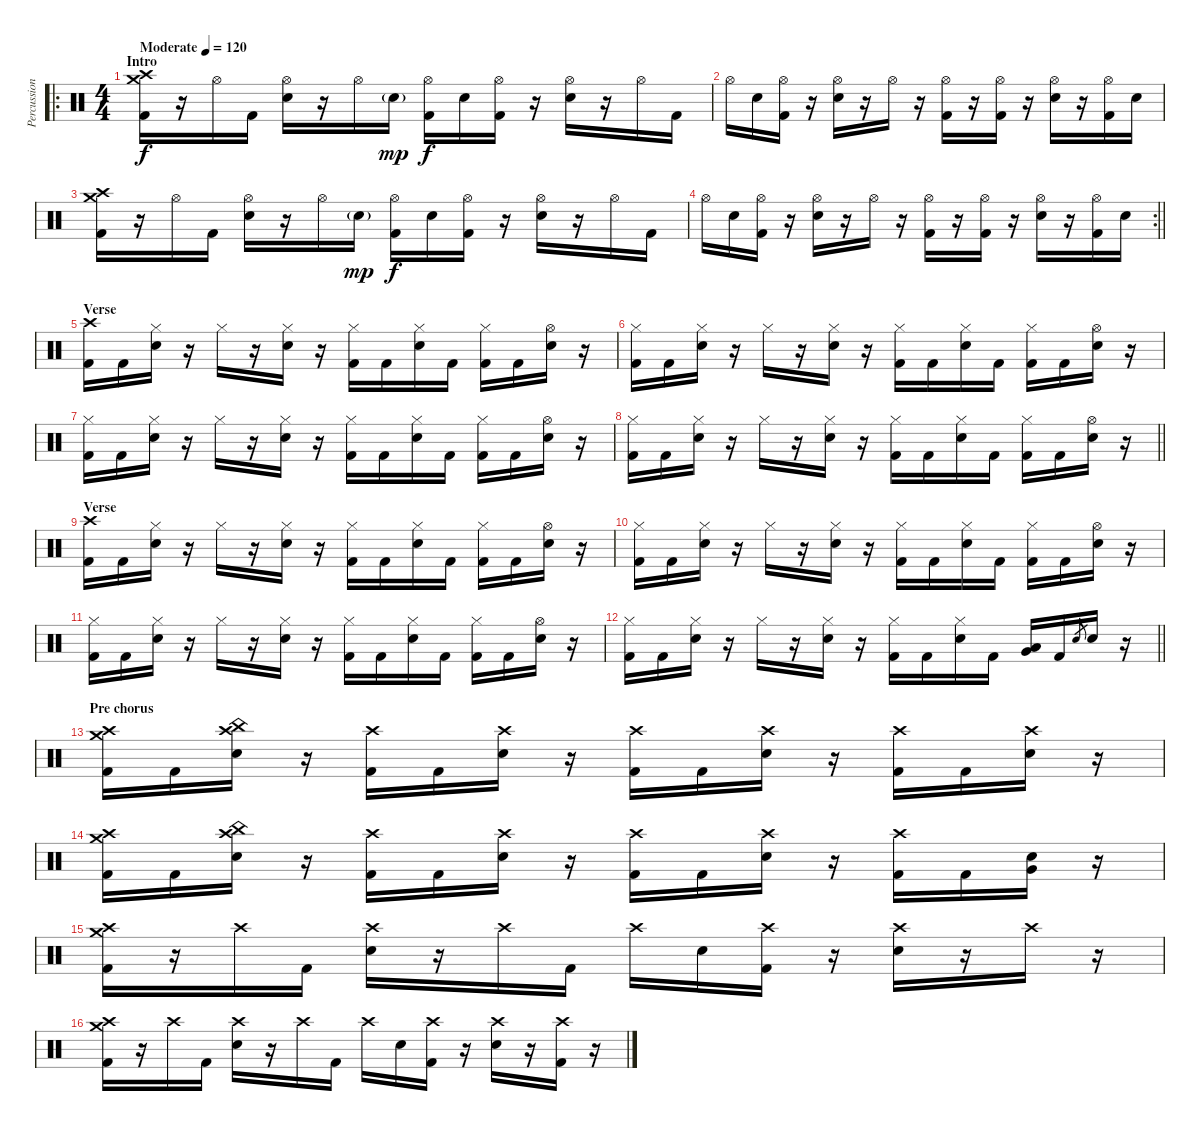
\track ("Percussion" "Percussion") {instrument percussion}
\staff {score}
\articulation defaults
\ro
\ts (4 4)
\section ("" "Intro")
\tempo (120 "Moderate")
\clef neutral
\ks c
("Crash medium (hit)" "Crash high (hit)" "Kick (hit) 2").16{dy f} r.16 "Hi-Hat (open)".16 "Kick (hit) 2".16 ("Hi-Hat (open)" "Electric Snare (hit)").16 r.16 "Hi-Hat (open)".16 "Electric Snare (hit)"{g}.16{dy mp} ("Hi-Hat (open)" "Kick (hit) 2").16{dy f} "Electric Snare (hit)".16 ("Hi-Hat (open)" "Kick (hit) 2").16 r.16 ("Hi-Hat (open)" "Electric Snare (hit)").16 r.16 "Hi-Hat (open)".16 "Kick (hit) 2".16 |
"Hi-Hat (open)".16 "Electric Snare (hit)".16 ("Hi-Hat (open)" "Kick (hit) 2").16 r.16 ("Hi-Hat (open)" "Electric Snare (hit)").16 r.16 "Hi-Hat (open)".16 r.16 ("Hi-Hat (open)" "Kick (hit) 2").16 r.16 ("Hi-Hat (open)" "Kick (hit) 2").16 r.16 ("Hi-Hat (open)" "Electric Snare (hit)").16 r.16 ("Hi-Hat (open)" "Kick (hit) 2").16 "Electric Snare (hit)".16 |
("Crash medium (hit)" "Crash high (hit)" "Kick (hit) 2").16 r.16 "Hi-Hat (open)".16 "Kick (hit) 2".16 ("Hi-Hat (open)" "Electric Snare (hit)").16 r.16 "Hi-Hat (open)".16 "Electric Snare (hit)"{g}.16{dy mp} ("Hi-Hat (open)" "Kick (hit) 2").16{dy f} "Electric Snare (hit)".16 ("Hi-Hat (open)" "Kick (hit) 2").16 r.16 ("Hi-Hat (open)" "Electric Snare (hit)").16 r.16 "Hi-Hat (open)".16 "Kick (hit) 2".16 |
\rc 2
\barLineRight lightlight "Hi-Hat (open)".16 "Electric Snare (hit)".16
("Hi-Hat (open)" "Kick (hit) 2").16 r.16 ("Hi-Hat (open)" "Electric Snare (hit)").16 r.16 "Hi-Hat (open)".16 r.16 ("Hi-Hat (open)" "Kick (hit) 2").16 r.16 ("Hi-Hat (open)" "Kick (hit) 2").16 r.16 ("Hi-Hat (open)" "Electric Snare (hit)").16 r.16 ("Hi-Hat (open)" "Kick (hit) 2").16 "Electric Snare (hit)".16 |
\section ("" "Verse")
("Crash high (hit)" "Kick (hit) 2").16 "Kick (hit) 2".16 ("Hi-Hat (closed)" "Electric Snare (hit)").16 r.16 "Hi-Hat (closed)".16 r.16 ("Hi-Hat (closed)" "Electric Snare (hit)").16 r.16 ("Hi-Hat (closed)" "Kick (hit) 2").16 "Kick (hit) 2".16 ("Hi-Hat (closed)" "Electric Snare (hit)").16 "Kick (hit) 2".16 ("Hi-Hat (closed)" "Kick (hit) 2").16 "Kick (hit) 2".16 ("Hi-Hat (open)" "Electric Snare (hit)").16 r.16 |
("Hi-Hat (closed)" "Kick (hit) 2").16 "Kick (hit) 2".16 ("Hi-Hat (closed)" "Electric Snare (hit)").16 r.16 "Hi-Hat (closed)".16 r.16 ("Hi-Hat (closed)" "Electric Snare (hit)").16 r.16 ("Hi-Hat (closed)" "Kick (hit) 2").16 "Kick (hit) 2".16 ("Hi-Hat (closed)" "Electric Snare (hit)").16 "Kick (hit) 2".16 ("Hi-Hat (closed)" "Kick (hit) 2").16 "Kick (hit) 2".16 ("Hi-Hat (open)" "Electric Snare (hit)").16 r.16 |
("Hi-Hat (closed)" "Kick (hit) 2").16 "Kick (hit) 2".16 ("Hi-Hat (closed)" "Electric Snare (hit)").16 r.16 "Hi-Hat (closed)".16 r.16 ("Hi-Hat (closed)" "Electric Snare (hit)").16 r.16 ("Hi-Hat (closed)" "Kick (hit) 2").16 "Kick (hit) 2".16 ("Hi-Hat (closed)" "Electric Snare (hit)").16 "Kick (hit) 2".16 ("Hi-Hat (closed)" "Kick (hit) 2").16 "Kick (hit) 2".16 ("Hi-Hat (open)" "Electric Snare (hit)").16 r.16 |
\barLineRight lightlight
("Hi-Hat (closed)" "Kick (hit) 2").16 "Kick (hit) 2".16 ("Hi-Hat (closed)" "Electric Snare (hit)").16 r.16 "Hi-Hat (closed)".16 r.16 ("Hi-Hat (closed)" "Electric Snare (hit)").16 r.16 ("Hi-Hat (closed)" "Kick (hit) 2").16 "Kick (hit) 2".16 ("Hi-Hat (closed)" "Electric Snare (hit)").16 "Kick (hit) 2".16 ("Hi-Hat (closed)" "Kick (hit) 2").16 "Kick (hit) 2".16 ("Hi-Hat (open)" "Electric Snare (hit)").16 r.16 |
\section ("" "Verse")
("Crash high (hit)" "Kick (hit) 2").16 "Kick (hit) 2".16 ("Hi-Hat (closed)" "Electric Snare (hit)").16 r.16 "Hi-Hat (closed)".16 r.16 ("Hi-Hat (closed)" "Electric Snare (hit)").16 r.16 ("Hi-Hat (closed)" "Kick (hit) 2").16 "Kick (hit) 2".16 ("Hi-Hat (closed)" "Electric Snare (hit)").16 "Kick (hit) 2".16 ("Hi-Hat (closed)" "Kick (hit) 2").16 "Kick (hit) 2".16 ("Hi-Hat (open)" "Electric Snare (hit)").16 r.16 |
("Hi-Hat (closed)" "Kick (hit) 2").16 "Kick (hit) 2".16 ("Hi-Hat (closed)" "Electric Snare (hit)").16 r.16 "Hi-Hat (closed)".16 r.16 ("Hi-Hat (closed)" "Electric Snare (hit)").16 r.16 ("Hi-Hat (closed)" "Kick (hit) 2").16 "Kick (hit) 2".16 ("Hi-Hat (closed)" "Electric Snare (hit)").16 "Kick (hit) 2".16 ("Hi-Hat (closed)" "Kick (hit) 2").16 "Kick (hit) 2".16 ("Hi-Hat (open)" "Electric Snare (hit)").16 r.16 |
("Hi-Hat (closed)" "Kick (hit) 2").16 "Kick (hit) 2".16 ("Hi-Hat (closed)" "Electric Snare (hit)").16 r.16 "Hi-Hat (closed)".16 r.16 ("Hi-Hat (closed)" "Electric Snare (hit)").16 r.16 ("Hi-Hat (closed)" "Kick (hit) 2").16 "Kick (hit) 2".16 ("Hi-Hat (closed)" "Electric Snare (hit)").16 "Kick (hit) 2".16 ("Hi-Hat (closed)" "Kick (hit) 2").16 "Kick (hit) 2".16 ("Hi-Hat (open)" "Electric Snare (hit)").16 r.16 |
\barLineRight lightlight
("Hi-Hat (closed)" "Kick (hit) 2").16 "Kick (hit) 2".16 ("Hi-Hat (closed)" "Electric Snare (hit)").16 r.16 "Hi-Hat (closed)".16 r.16 ("Hi-Hat (closed)" "Electric Snare (hit)").16 r.16 ("Hi-Hat (closed)" "Kick (hit) 2").16 "Kick (hit) 2".16 ("Hi-Hat (closed)" "Electric Snare (hit)").16 "Kick (hit) 2".16 ("Very Low Tom (hit)" "Low Tom (hit)").16 "Kick (hit) 2".16 "Electric Snare (hit)".8{gr} "Electric Snare (hit)".16 r.16 |
\section ("" "Pre chorus")
("Crash medium (hit)" "Crash high (hit)" "Kick (hit) 2").16 "Kick (hit) 2".16 ("China (hit)" "Crash high (hit)" "Electric Snare (hit)").16 r.16 ("Crash high (hit)" "Kick (hit) 2").16 "Kick (hit) 2".16 ("Crash high (hit)" "Electric Snare (hit)").16 r.16 ("Crash high (hit)" "Kick (hit) 2").16 "Kick (hit) 2".16 ("Crash high (hit)" "Electric Snare (hit)").16 r.16 ("Crash high (hit)" "Kick (hit) 2").16 "Kick (hit) 2".16 ("Crash high (hit)" "Electric Snare (hit)").16 r.16 |
("Crash medium (hit)" "Crash high (hit)" "Kick (hit) 2").16 "Kick (hit) 2".16 ("China (hit)" "Crash high (hit)" "Electric Snare (hit)").16 r.16 ("Crash high (hit)" "Kick (hit) 2").16 "Kick (hit) 2".16 ("Crash high (hit)" "Electric Snare (hit)").16 r.16 ("Crash high (hit)" "Kick (hit) 2").16 "Kick (hit) 2".16 ("Crash high (hit)" "Electric Snare (hit)").16 r.16 ("Crash high (hit)" "Kick (hit) 2").16 "Kick (hit) 2".16 ("Electric Snare (hit)" "Very Low Tom (hit)").16 r.16 |
("Crash medium (hit)" "Crash high (hit)" "Kick (hit) 2").16 r.16 "Crash high (hit)".16 "Kick (hit) 2".16 ("Crash high (hit)" "Electric Snare (hit)").16 r.16 "Crash high (hit)".16 "Kick (hit) 2".16 "Crash high (hit)".16 "Electric Snare (hit)".16 ("Crash high (hit)" "Kick (hit) 2").16 r.16 ("Crash high (hit)" "Electric Snare (hit)").16 r.16 "Crash high (hit)".16 r.16 |
("Crash medium (hit)" "Crash high (hit)" "Kick (hit) 2").16 r.16 "Crash high (hit)".16 "Kick (hit) 2".16 ("Crash high (hit)" "Electric Snare (hit)").16 r.16 "Crash high (hit)".16 "Kick (hit) 2".16 "Crash high (hit)".16 "Electric Snare (hit)".16 ("Crash high (hit)" "Kick (hit) 2").16 r.16 ("Crash high (hit)" "Electric Snare (hit)").16 r.16 ("Crash high (hit)" "Kick (hit) 2").16 r.16
